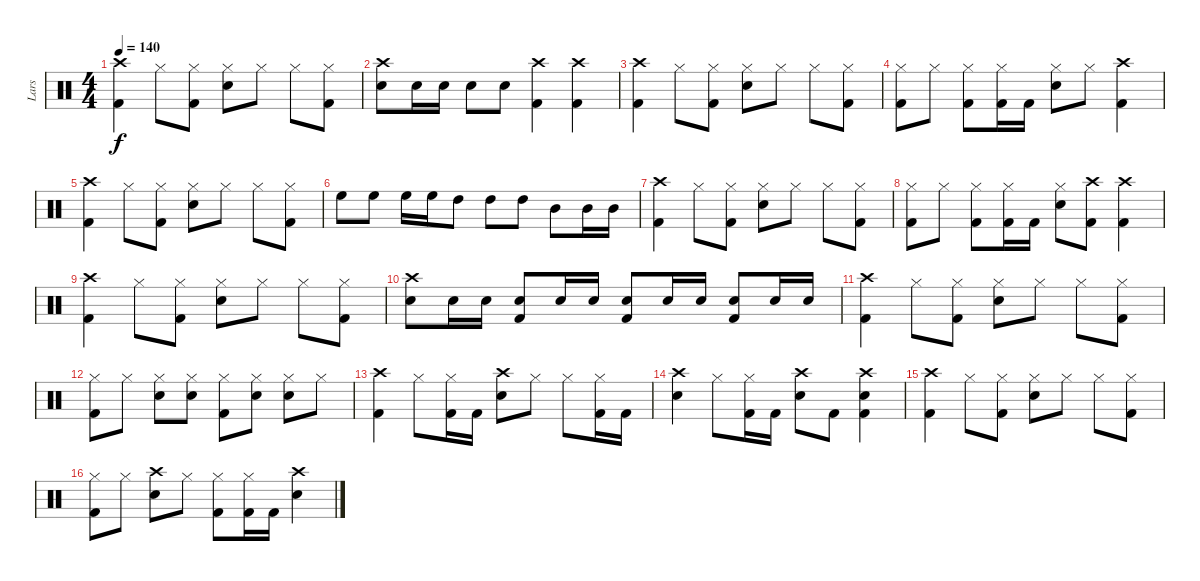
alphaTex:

\track ("Lars" "Lars") {instrument percussion}
\staff {score}
\articulation defaults
\ts (4 4)
\tempo 140
\clef neutral
\ks c
("Crash high (hit)" "Kick (hit) 2").4{dy f} "Hi-Hat (closed)".8 ("Hi-Hat (closed)" "Kick (hit) 2").8 ("Hi-Hat (closed)" "Snare (hit) 2").8 "Hi-Hat (closed)".8 "Hi-Hat (closed)".8 ("Hi-Hat (closed)" "Kick (hit) 2").8 |
("Crash high (hit)" "Snare (hit) 2").8 "Snare (hit) 2".16 "Snare (hit) 2".16 "Snare (hit) 2".8 "Snare (hit) 2".8 ("Crash high (hit)" "Kick (hit) 2").4 ("Crash high (hit)" "Kick (hit) 2").4 |
("Crash high (hit)" "Kick (hit) 2").4 "Hi-Hat (closed)".8 ("Hi-Hat (closed)" "Kick (hit) 2").8 ("Hi-Hat (closed)" "Snare (hit) 2").8 "Hi-Hat (closed)".8 "Hi-Hat (closed)".8 ("Hi-Hat (closed)" "Kick (hit) 2").8 |
("Hi-Hat (closed)" "Kick (hit) 2").8 "Hi-Hat (closed)".8 ("Hi-Hat (closed)" "Kick (hit) 2").8 ("Hi-Hat (closed)" "Kick (hit) 2").16 "Kick (hit) 2".16 ("Hi-Hat (closed)" "Snare (hit) 2").8 "Hi-Hat (closed)".8 ("Crash high (hit)" "Kick (hit) 2").4 |
("Crash high (hit)" "Kick (hit) 2").4 "Hi-Hat (closed)".8 ("Hi-Hat (closed)" "Kick (hit) 2").8 ("Hi-Hat (closed)" "Snare (hit) 2").8 "Hi-Hat (closed)".8 "Hi-Hat (closed)".8 ("Hi-Hat (closed)" "Kick (hit) 2").8 |
"High Floor Tom (hit)".8 "High Floor Tom (hit)".8 "High Floor Tom (hit)".16 "High Floor Tom (hit)".16 "High Tom (hit)".8 "High Tom (hit)".8 "High Tom (hit)".8 "Mid Tom (hit)".8 "Mid Tom (hit)".16 "Mid Tom (hit)".16 |
("Crash high (hit)" "Kick (hit) 2").4 "Hi-Hat (closed)".8 ("Hi-Hat (closed)" "Kick (hit) 2").8 ("Hi-Hat (closed)" "Snare (hit) 2").8 "Hi-Hat (closed)".8 "Hi-Hat (closed)".8 ("Hi-Hat (closed)" "Kick (hit) 2").8 |
("Hi-Hat (closed)" "Kick (hit) 2").8 "Hi-Hat (closed)".8 ("Hi-Hat (closed)" "Kick (hit) 2").8 ("Hi-Hat (closed)" "Kick (hit) 2").16 "Kick (hit) 2".16 ("Hi-Hat (closed)" "Snare (hit) 2").8 ("Crash high (hit)" "Kick (hit) 2").8 ("Crash high (hit)" "Kick (hit) 2").4 |
("Crash high (hit)" "Kick (hit) 2").4 "Hi-Hat (closed)".8 ("Hi-Hat (closed)" "Kick (hit) 2").8 ("Hi-Hat (closed)" "Snare (hit) 2").8 "Hi-Hat (closed)".8 "Hi-Hat (closed)".8 ("Hi-Hat (closed)" "Kick (hit) 2").8 |
("Crash high (hit)" "Snare (hit) 2").8 "Snare (hit) 2".16 "Snare (hit) 2".16 ("Snare (hit) 2" "Kick (hit) 2").8 "Snare (hit) 2".16 "Snare (hit) 2".16 ("Snare (hit) 2" "Kick (hit) 2").8 "Snare (hit) 2".16 "Snare (hit) 2".16 ("Snare (hit) 2" "Kick (hit) 2").8 "Snare (hit) 2".16 "Snare (hit) 2".16 |
("Crash high (hit)" "Kick (hit) 2").4 "Hi-Hat (closed)".8 ("Hi-Hat (closed)" "Kick (hit) 2").8 ("Hi-Hat (closed)" "Snare (hit) 2").8 "Hi-Hat (closed)".8 "Hi-Hat (closed)".8 ("Hi-Hat (closed)" "Kick (hit) 2").8 |
("Hi-Hat (closed)" "Kick (hit) 2").8 "Hi-Hat (closed)".8 ("Hi-Hat (closed)" "Snare (hit) 2").8 ("Hi-Hat (closed)" "Snare (hit) 2").8 ("Hi-Hat (closed)" "Kick (hit) 2").8 ("Hi-Hat (closed)" "Snare (hit) 2").8 ("Hi-Hat (closed)" "Snare (hit) 2").8 "Hi-Hat (closed)".8 |
("Crash high (hit)" "Kick (hit) 2").4 "Hi-Hat (closed)".8 ("Hi-Hat (closed)" "Kick (hit) 2").16 "Kick (hit) 2".16 ("Crash high (hit)" "Snare (hit) 2").8 "Hi-Hat (closed)".8 "Hi-Hat (closed)".8 ("Hi-Hat (closed)" "Kick (hit) 2").16 "Kick (hit) 2".16 |
("Crash high (hit)" "Snare (hit) 2").4 "Hi-Hat (closed)".8 ("Hi-Hat (closed)" "Kick (hit) 2").16 "Kick (hit) 2".16 ("Crash high (hit)" "Snare (hit) 2").8 "Kick (hit) 2".8 ("Crash high (hit)" "Snare (hit) 2" "Kick (hit) 2").4 |
("Crash high (hit)" "Kick (hit) 2").4 "Hi-Hat (closed)".8 ("Hi-Hat (closed)" "Kick (hit) 2").8 ("Hi-Hat (closed)" "Snare (hit) 2").8 "Hi-Hat (closed)".8 "Hi-Hat (closed)".8 ("Hi-Hat (closed)" "Kick (hit) 2").8 |
("Hi-Hat (closed)" "Kick (hit) 2").8 "Hi-Hat (closed)".8 ("Crash high (hit)" "Snare (hit) 2").8 "Hi-Hat (closed)".8 ("Hi-Hat (closed)" "Kick (hit) 2").8 ("Hi-Hat (closed)" "Kick (hit) 2").16 "Kick (hit) 2".16 ("Crash high (hit)" "Snare (hit) 2").4
